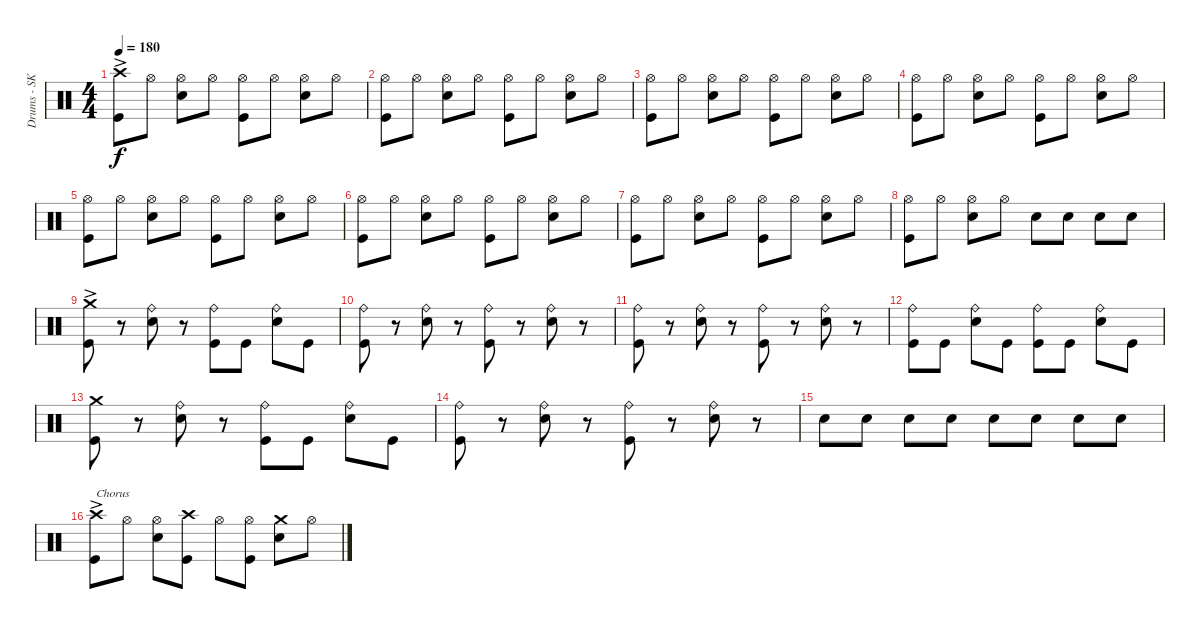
\track ("Drums - SK" "Drums - SK") {instrument percussion}
\staff {score}
\articulation defaults
\ts (4 4)
\tempo 180
\clef neutral
\ks c
("Crash high (hit)"{ac} "Kick (hit)"{ac}).8{dy f} "Hi-Hat (open)".8 ("Hi-Hat (open)" "Snare (hit) 2").8 "Hi-Hat (open)".8 ("Hi-Hat (open)" "Kick (hit)").8 "Hi-Hat (open)".8 ("Hi-Hat (open)" "Snare (hit) 2").8 "Hi-Hat (open)".8 |
("Hi-Hat (open)" "Kick (hit)").8 "Hi-Hat (open)".8 ("Hi-Hat (open)" "Snare (hit) 2").8 "Hi-Hat (open)".8 ("Hi-Hat (open)" "Kick (hit)").8 "Hi-Hat (open)".8 ("Hi-Hat (open)" "Snare (hit) 2").8 "Hi-Hat (open)".8 |
("Hi-Hat (open)" "Kick (hit)").8 "Hi-Hat (open)".8 ("Hi-Hat (open)" "Snare (hit) 2").8 "Hi-Hat (open)".8 ("Hi-Hat (open)" "Kick (hit)").8 "Hi-Hat (open)".8 ("Hi-Hat (open)" "Snare (hit) 2").8 "Hi-Hat (open)".8 |
("Hi-Hat (open)" "Kick (hit)").8 "Hi-Hat (open)".8 ("Hi-Hat (open)" "Snare (hit) 2").8 "Hi-Hat (open)".8 ("Hi-Hat (open)" "Kick (hit)").8 "Hi-Hat (open)".8 ("Hi-Hat (open)" "Snare (hit) 2").8 "Hi-Hat (open)".8 |
("Kick (hit)" "Hi-Hat (open)").8 "Hi-Hat (open)".8 ("Hi-Hat (open)" "Snare (hit) 2").8 "Hi-Hat (open)".8 ("Hi-Hat (open)" "Kick (hit)").8 "Hi-Hat (open)".8 ("Hi-Hat (open)" "Snare (hit) 2").8 "Hi-Hat (open)".8 |
("Hi-Hat (open)" "Kick (hit)").8 "Hi-Hat (open)".8 ("Hi-Hat (open)" "Snare (hit) 2").8 "Hi-Hat (open)".8 ("Hi-Hat (open)" "Kick (hit)").8 "Hi-Hat (open)".8 ("Hi-Hat (open)" "Snare (hit) 2").8 "Hi-Hat (open)".8 |
("Hi-Hat (open)" "Kick (hit)").8 "Hi-Hat (open)".8 ("Hi-Hat (open)" "Snare (hit) 2").8 "Hi-Hat (open)".8 ("Hi-Hat (open)" "Kick (hit)").8 "Hi-Hat (open)".8 ("Hi-Hat (open)" "Snare (hit) 2").8 "Hi-Hat (open)".8 |
("Hi-Hat (open)" "Kick (hit)").8 "Hi-Hat (open)".8 ("Hi-Hat (open)" "Snare (hit) 2").8 "Hi-Hat (open)".8 "Snare (hit) 2".8 "Snare (hit) 2".8 "Snare (hit) 2".8 "Snare (hit) 2".8 |
("Crash medium (hit)"{ac} "Kick (hit)"{ac}).8 r.8 ("Ride (bell)" "Snare (hit) 2").8 r.8 ("Ride (bell)" "Kick (hit)").8 "Kick (hit)".8 ("Ride (bell)" "Snare (hit) 2").8 "Kick (hit)".8 |
("Ride (bell)" "Kick (hit)").8 r.8 ("Ride (bell)" "Snare (hit) 2").8 r.8 ("Ride (bell)" "Kick (hit)").8 r.8 ("Ride (bell)" "Snare (hit) 2").8 r.8 |
("Ride (bell)" "Kick (hit)").8 r.8 ("Ride (bell)" "Snare (hit) 2").8 r.8 ("Ride (bell)" "Kick (hit)").8 r.8 ("Ride (bell)" "Snare (hit) 2").8 r.8 |
("Ride (bell)" "Kick (hit)").8 "Kick (hit)".8 ("Ride (bell)" "Snare (hit) 2").8 "Kick (hit)".8 ("Ride (bell)" "Kick (hit)").8 "Kick (hit)".8 ("Ride (bell)" "Snare (hit) 2").8 "Kick (hit)".8 |
("Crash medium (hit)" "Kick (hit)").8 r.8 ("Ride (bell)" "Snare (hit) 2").8 r.8 ("Ride (bell)" "Kick (hit)").8 "Kick (hit)".8 ("Ride (bell)" "Snare (hit) 2").8 "Kick (hit)".8 |
("Ride (bell)" "Kick (hit)").8 r.8 ("Ride (bell)" "Snare (hit) 2").8 r.8 ("Ride (bell)" "Kick (hit)").8 r.8 ("Ride (bell)" "Snare (hit) 2").8 r.8 |
"Snare (hit) 2".8 "Snare (hit) 2".8 "Snare (hit) 2".8 "Snare (hit) 2".8 "Snare (hit) 2".8 "Snare (hit) 2".8 "Snare (hit) 2".8 "Snare (hit) 2".8 |
("Crash high (hit)"{ac} "Kick (hit)"{ac}).8{txt "Chorus"} "Hi-Hat (open)".8 ("Hi-Hat (open)" "Snare (hit) 2").8 ("Kick (hit)" "Crash high (hit)").8 "Hi-Hat (open)".8 ("Kick (hit)" "Hi-Hat (open)").8 ("Snare (hit) 2" "Crash medium (hit)").8 "Hi-Hat (open)".8
